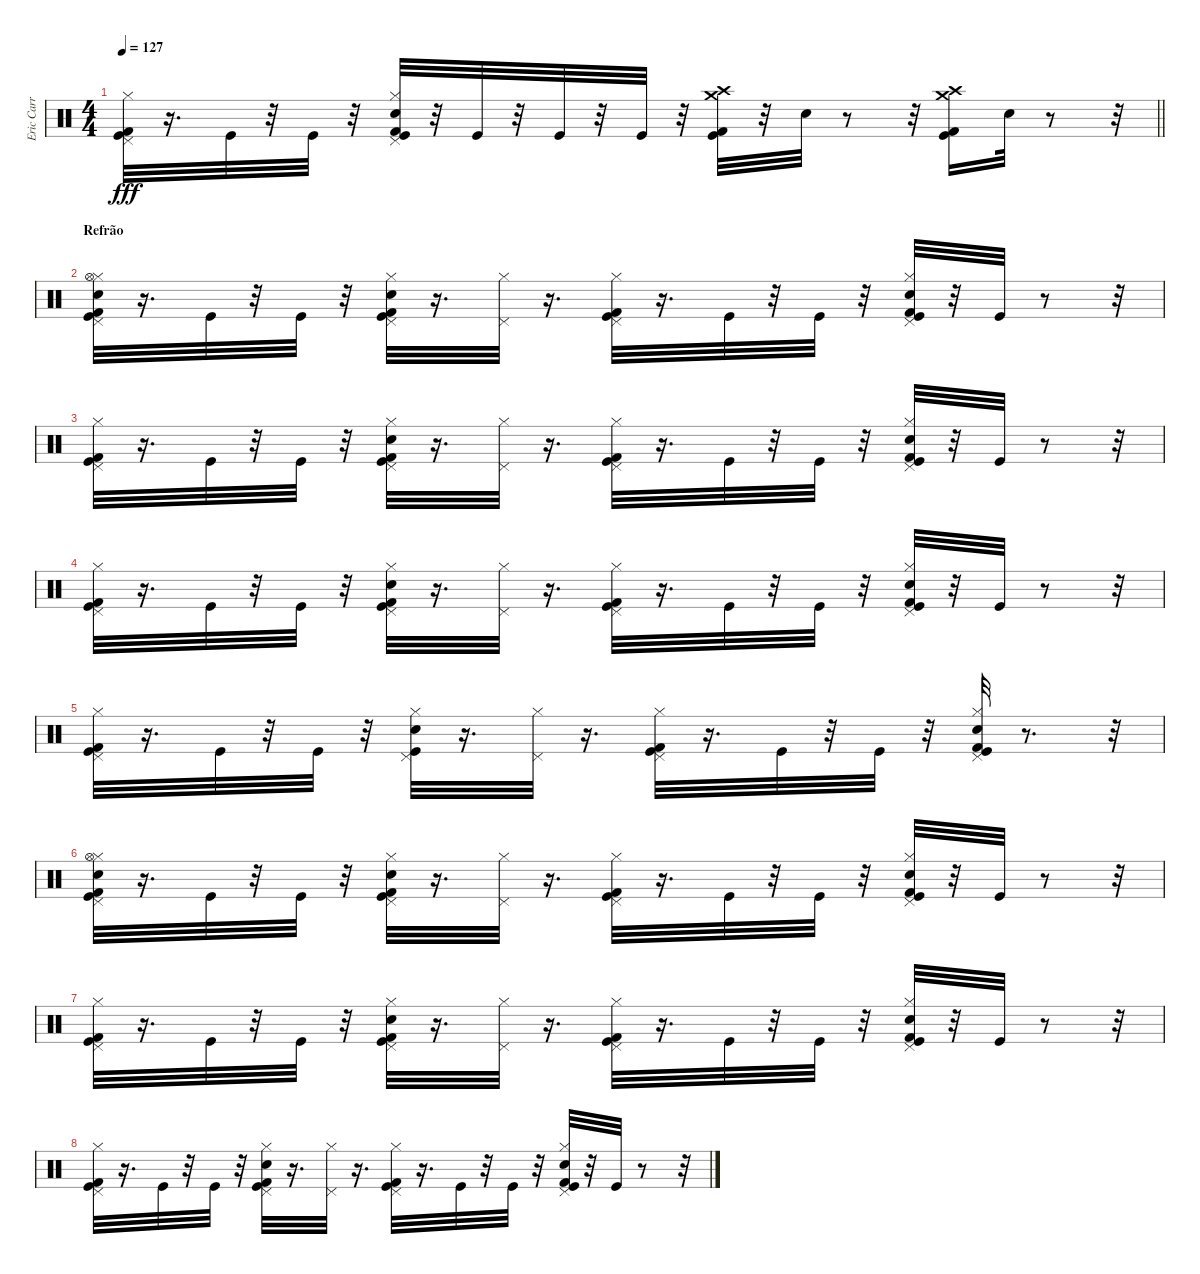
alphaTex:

\track ("Eric Carr - Bateria" "Eric Carr ") {instrument percussion}
\staff {score}
\articulation defaults
\ts (4 4)
\tempo 127
\clef neutral
\barLineRight lightlight
\ks c
("Kick (hit) 2" "Kick (hit)" "Pedal Hi-Hat (hit)" "Hi-Hat (closed)").32{dy fff} r.16{d} "Kick (hit)".32 r.32 "Kick (hit)".32 r.32 ("Kick (hit)" "Pedal Hi-Hat (hit)" "Hi-Hat (closed)" "Kick (hit) 2" "Snare (hit) 2").32 r.32 "Kick (hit)".32 r.32 "Kick (hit)".32 r.32 "Kick (hit)".32 r.32 ("Kick (hit)" "Kick (hit) 2" "Crash medium (hit)" "Crash high (hit)").32 r.32 "Snare (hit) 2".32 r.8 r.32 ("Kick (hit)" "Kick (hit) 2" "Crash medium (hit)" "Crash high (hit)").16 "Snare (hit) 2".32 r.8 r.32 |
\section ("" "Refrão")
("Hi-Hat (closed)" "Kick (hit) 2" "Snare (hit) 2" "Kick (hit)" "Pedal Hi-Hat (hit)" "Hi-Hat (open)").32 r.16{d} "Kick (hit)".32 r.32 "Kick (hit)".32 r.32 ("Kick (hit) 2" "Hi-Hat (closed)" "Pedal Hi-Hat (hit)" "Kick (hit)" "Snare (hit) 2").32 r.16{d} ("Hi-Hat (closed)" "Pedal Hi-Hat (hit)").32 r.16{d} ("Kick (hit)" "Hi-Hat (closed)" "Pedal Hi-Hat (hit)" "Kick (hit) 2").32 r.16{d} "Kick (hit)".32 r.32 "Kick (hit)".32 r.32 ("Hi-Hat (closed)" "Snare (hit) 2" "Kick (hit)" "Kick (hit) 2" "Pedal Hi-Hat (hit)").32 r.32 "Kick (hit)".32 r.8 r.32 |
("Kick (hit) 2" "Kick (hit)" "Hi-Hat (closed)" "Pedal Hi-Hat (hit)").32 r.16{d} "Kick (hit)".32 r.32 "Kick (hit)".32 r.32 ("Pedal Hi-Hat (hit)" "Snare (hit) 2" "Kick (hit) 2" "Kick (hit)" "Hi-Hat (closed)").32 r.16{d} ("Pedal Hi-Hat (hit)" "Hi-Hat (closed)").32 r.16{d} ("Kick (hit) 2" "Kick (hit)" "Pedal Hi-Hat (hit)" "Hi-Hat (closed)").32 r.16{d} "Kick (hit)".32 r.32 "Kick (hit)".32 r.32 ("Kick (hit)" "Snare (hit) 2" "Kick (hit) 2" "Hi-Hat (closed)" "Pedal Hi-Hat (hit)").32 r.32 "Kick (hit)".32 r.8 r.32 |
("Kick (hit) 2" "Pedal Hi-Hat (hit)" "Kick (hit)" "Hi-Hat (closed)").32 r.16{d} "Kick (hit)".32 r.32 "Kick (hit)".32 r.32 ("Pedal Hi-Hat (hit)" "Snare (hit) 2" "Kick (hit) 2" "Hi-Hat (closed)" "Kick (hit)").32 r.16{d} ("Pedal Hi-Hat (hit)" "Hi-Hat (closed)").32 r.16{d} ("Hi-Hat (closed)" "Pedal Hi-Hat (hit)" "Kick (hit)" "Kick (hit) 2").32 r.16{d} "Kick (hit)".32 r.32 "Kick (hit)".32 r.32 ("Snare (hit) 2" "Kick (hit)" "Kick (hit) 2" "Pedal Hi-Hat (hit)" "Hi-Hat (closed)").32 r.32 "Kick (hit)".32 r.8 r.32 |
("Kick (hit) 2" "Hi-Hat (closed)" "Kick (hit)" "Pedal Hi-Hat (hit)").32 r.16{d} "Kick (hit)".32 r.32 "Kick (hit)".32 r.32 ("Kick (hit)" "Snare (hit) 2" "Pedal Hi-Hat (hit)" "Hi-Hat (closed)").32 r.16{d} ("Pedal Hi-Hat (hit)" "Hi-Hat (closed)").32 r.16{d} ("Kick (hit) 2" "Kick (hit)" "Hi-Hat (closed)" "Pedal Hi-Hat (hit)").32 r.16{d} "Kick (hit)".32 r.32 "Kick (hit)".32 r.32 ("Pedal Hi-Hat (hit)" "Kick (hit) 2" "Kick (hit)" "Hi-Hat (closed)" "Snare (hit) 2").32 r.8{d} r.32 |
("Hi-Hat (closed)" "Kick (hit) 2" "Snare (hit) 2" "Kick (hit)" "Pedal Hi-Hat (hit)" "Hi-Hat (open)").32 r.16{d} "Kick (hit)".32 r.32 "Kick (hit)".32 r.32 ("Kick (hit) 2" "Hi-Hat (closed)" "Pedal Hi-Hat (hit)" "Kick (hit)" "Snare (hit) 2").32 r.16{d} ("Hi-Hat (closed)" "Pedal Hi-Hat (hit)").32 r.16{d} ("Kick (hit)" "Hi-Hat (closed)" "Pedal Hi-Hat (hit)" "Kick (hit) 2").32 r.16{d} "Kick (hit)".32 r.32 "Kick (hit)".32 r.32 ("Hi-Hat (closed)" "Snare (hit) 2" "Kick (hit)" "Kick (hit) 2" "Pedal Hi-Hat (hit)").32 r.32 "Kick (hit)".32 r.8 r.32 |
("Kick (hit) 2" "Kick (hit)" "Hi-Hat (closed)" "Pedal Hi-Hat (hit)").32 r.16{d} "Kick (hit)".32 r.32 "Kick (hit)".32 r.32 ("Pedal Hi-Hat (hit)" "Snare (hit) 2" "Kick (hit) 2" "Kick (hit)" "Hi-Hat (closed)").32 r.16{d} ("Pedal Hi-Hat (hit)" "Hi-Hat (closed)").32 r.16{d} ("Kick (hit) 2" "Kick (hit)" "Pedal Hi-Hat (hit)" "Hi-Hat (closed)").32 r.16{d} "Kick (hit)".32 r.32 "Kick (hit)".32 r.32 ("Kick (hit)" "Snare (hit) 2" "Kick (hit) 2" "Hi-Hat (closed)" "Pedal Hi-Hat (hit)").32 r.32 "Kick (hit)".32 r.8 r.32 |
("Kick (hit) 2" "Pedal Hi-Hat (hit)" "Kick (hit)" "Hi-Hat (closed)").32 r.16{d} "Kick (hit)".32 r.32 "Kick (hit)".32 r.32 ("Pedal Hi-Hat (hit)" "Snare (hit) 2" "Kick (hit) 2" "Hi-Hat (closed)" "Kick (hit)").32 r.16{d} ("Pedal Hi-Hat (hit)" "Hi-Hat (closed)").32 r.16{d} ("Hi-Hat (closed)" "Pedal Hi-Hat (hit)" "Kick (hit)" "Kick (hit) 2").32 r.16{d} "Kick (hit)".32 r.32 "Kick (hit)".32 r.32 ("Snare (hit) 2" "Kick (hit)" "Kick (hit) 2" "Pedal Hi-Hat (hit)" "Hi-Hat (closed)").32 r.32 "Kick (hit)".32 r.8 r.32
